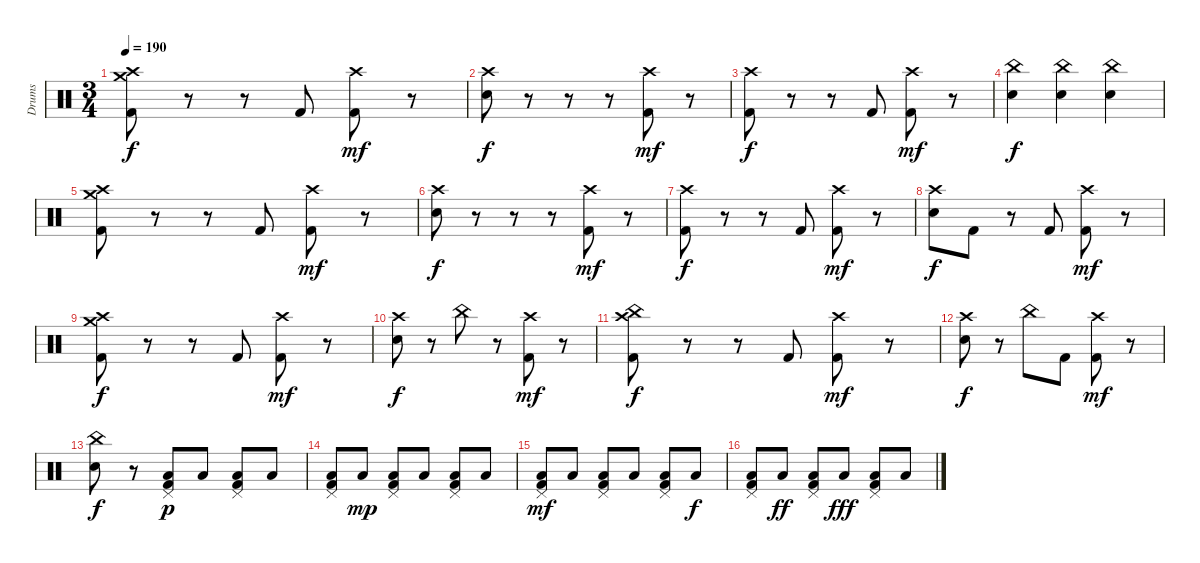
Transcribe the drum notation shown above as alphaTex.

\track ("Drums" "Drums") {instrument percussion}
\staff {score}
\articulation defaults
\ts (3 4)
\tempo 190
\clef neutral
\ks c
("Crash medium (hit)" "Crash high (hit)" "Kick (hit) 2").8{dy f} r.8 r.8 "Kick (hit) 2".8 ("Crash high (hit)" "Kick (hit) 2").8{dy mf} r.8 |
("Crash high (hit)" "Electric Snare (hit)").8{dy f} r.8 r.8 r.8 ("Crash high (hit)" "Kick (hit) 2").8{dy mf} r.8 |
("Crash high (hit)" "Kick (hit) 2").8{dy f} r.8 r.8 "Kick (hit) 2".8 ("Crash high (hit)" "Kick (hit) 2").8{dy mf} r.8 |
("China (hit)" "Electric Snare (hit)").4{dy f} ("China (hit)" "Electric Snare (hit)").4 ("China (hit)" "Electric Snare (hit)").4 |
("Crash medium (hit)" "Crash high (hit)" "Kick (hit) 2").8 r.8 r.8 "Kick (hit) 2".8 ("Crash high (hit)" "Kick (hit) 2").8{dy mf} r.8 |
("Crash high (hit)" "Electric Snare (hit)").8{dy f} r.8 r.8 r.8 ("Crash high (hit)" "Kick (hit) 2").8{dy mf} r.8 |
("Crash high (hit)" "Kick (hit) 2").8{dy f} r.8 r.8 "Kick (hit) 2".8 ("Crash high (hit)" "Kick (hit) 2").8{dy mf} r.8 |
("Crash high (hit)" "Electric Snare (hit)").8{dy f} "Kick (hit) 2".8 r.8 "Kick (hit) 2".8 ("Crash high (hit)" "Kick (hit) 2").8{dy mf} r.8 |
("Crash medium (hit)" "Crash high (hit)" "Kick (hit) 2").8{dy f} r.8 r.8 "Kick (hit) 2".8 ("Crash high (hit)" "Kick (hit) 2").8{dy mf} r.8 |
("Crash high (hit)" "Electric Snare (hit)").8{dy f} r.8 "China (hit)".8 r.8 ("Crash high (hit)" "Kick (hit) 2").8{dy mf} r.8 |
("China (hit)" "Crash high (hit)" "Kick (hit) 2").8{dy f} r.8 r.8 "Kick (hit) 2".8 ("Crash high (hit)" "Kick (hit) 2").8{dy mf} r.8 |
("Crash high (hit)" "Electric Snare (hit)").8{dy f} r.8 "China (hit)".8 "Kick (hit) 2".8 ("Crash high (hit)" "Kick (hit) 2").8{dy mf} r.8 |
("China (hit)" "Electric Snare (hit)").8{dy f} r.8 ("Pedal Hi-Hat (hit)" "Low Floor Tom (hit)" "Kick (hit) 2").8{dy p} "Low Floor Tom (hit)".8 ("Pedal Hi-Hat (hit)" "Low Floor Tom (hit)" "Kick (hit) 2").8 "Low Floor Tom (hit)".8 |
("Pedal Hi-Hat (hit)" "Low Floor Tom (hit)" "Kick (hit) 2").8 "Low Floor Tom (hit)".8{dy mp} ("Pedal Hi-Hat (hit)" "Low Floor Tom (hit)" "Kick (hit) 2").8 "Low Floor Tom (hit)".8 ("Pedal Hi-Hat (hit)" "Low Floor Tom (hit)" "Kick (hit) 2").8 "Low Floor Tom (hit)".8 |
("Pedal Hi-Hat (hit)" "Low Floor Tom (hit)" "Kick (hit) 2").8{dy mf} "Low Floor Tom (hit)".8 ("Pedal Hi-Hat (hit)" "Low Floor Tom (hit)" "Kick (hit) 2").8 "Low Floor Tom (hit)".8 ("Pedal Hi-Hat (hit)" "Low Floor Tom (hit)" "Kick (hit) 2").8 "Low Floor Tom (hit)".8{dy f} |
("Pedal Hi-Hat (hit)" "Low Floor Tom (hit)" "Kick (hit) 2").8 "Low Floor Tom (hit)".8{dy ff} ("Pedal Hi-Hat (hit)" "Low Floor Tom (hit)" "Kick (hit) 2").8 "Low Floor Tom (hit)".8{dy fff} ("Pedal Hi-Hat (hit)" "Low Floor Tom (hit)" "Kick (hit) 2").8 "Low Floor Tom (hit)".8
